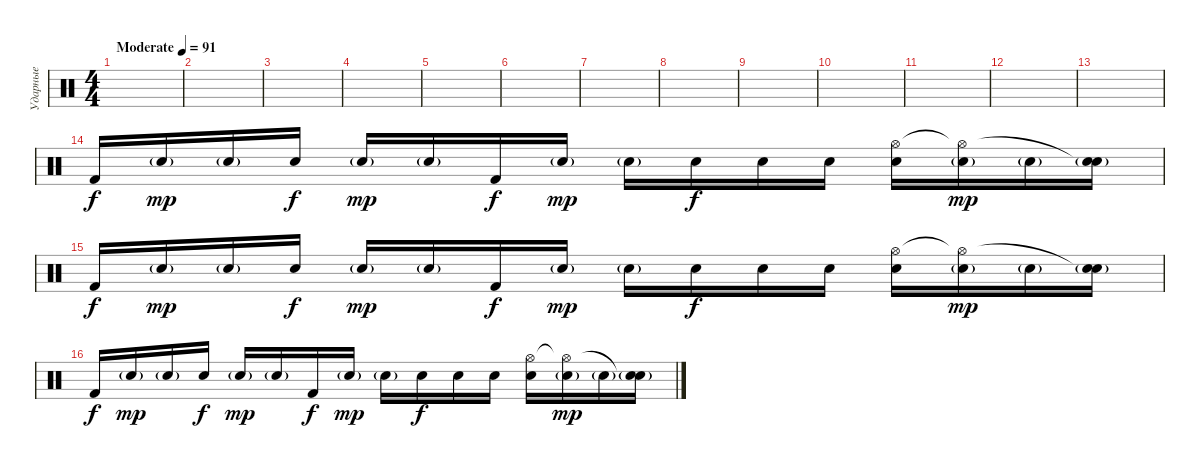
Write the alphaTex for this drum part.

\track ("Ударные" "Ударные") {instrument percussion}
\staff {score}
\articulation defaults
\ts (4 4)
\tempo (91 "Moderate")
\clef neutral
\ks c
|
|
|
|
|
|
|
|
|
|
|
|
|
"Kick (hit) 2".16 "Snare (hit) 2"{g}.16{dy mp} "Snare (hit) 2"{g}.16 "Snare (hit) 2".16{dy f} "Snare (hit) 2"{g}.16{dy mp} "Snare (hit) 2"{g}.16 "Kick (hit) 2".16{dy f} "Snare (hit) 2"{g}.16{dy mp} "Snare (hit) 2"{g}.16 "Snare (hit) 2".16{dy f} "Snare (hit) 2".16 "Snare (hit) 2".16 ("Snare (hit) 2" "Hi-Hat (open)").16 ("Snare (hit) 2"{g} "Hi-Hat (open)"{t}).16{dy mp} "Snare (hit) 2"{g}.16 ("Snare (hit) 2"{g} "Snare (hit)"{t}).16 |
"Kick (hit) 2".16{dy f} "Snare (hit) 2"{g}.16{dy mp} "Snare (hit) 2"{g}.16 "Snare (hit) 2".16{dy f} "Snare (hit) 2"{g}.16{dy mp} "Snare (hit) 2"{g}.16 "Kick (hit) 2".16{dy f} "Snare (hit) 2"{g}.16{dy mp} "Snare (hit) 2"{g}.16 "Snare (hit) 2".16{dy f} "Snare (hit) 2".16 "Snare (hit) 2".16 ("Snare (hit) 2" "Hi-Hat (open)").16 ("Snare (hit) 2"{g} "Hi-Hat (open)"{t}).16{dy mp} "Snare (hit) 2"{g}.16 ("Snare (hit) 2"{g} "Snare (hit)"{t}).16 |
"Kick (hit) 2".16{dy f} "Snare (hit) 2"{g}.16{dy mp} "Snare (hit) 2"{g}.16 "Snare (hit) 2".16{dy f} "Snare (hit) 2"{g}.16{dy mp} "Snare (hit) 2"{g}.16 "Kick (hit) 2".16{dy f} "Snare (hit) 2"{g}.16{dy mp} "Snare (hit) 2"{g}.16 "Snare (hit) 2".16{dy f} "Snare (hit) 2".16 "Snare (hit) 2".16 ("Snare (hit) 2" "Hi-Hat (open)").16 ("Snare (hit) 2"{g} "Hi-Hat (open)"{t}).16{dy mp} "Snare (hit) 2"{g}.16 ("Snare (hit) 2"{g} "Snare (hit)"{t}).16
